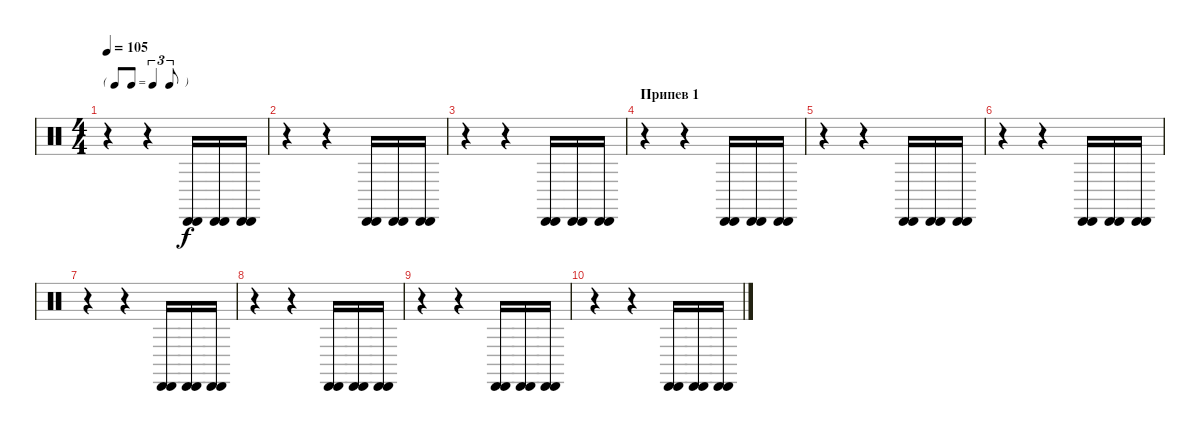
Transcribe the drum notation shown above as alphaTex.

\track "" {instrument percussion}
\staff {score}
\articulation defaults
\ts (4 4)
\tf triplet8th
\tempo 105
\clef neutral
\ks c
r.4{dy f} r.4 ("Cabasa (hit)" "Cabasa (hit)").16 ("Cabasa (hit)" "Cabasa (hit)").16 ("Cabasa (hit)" "Cabasa (hit)").16 |
r.4 r.4 ("Cabasa (hit)" "Cabasa (hit)").16 ("Cabasa (hit)" "Cabasa (hit)").16 ("Cabasa (hit)" "Cabasa (hit)").16 |
r.4 r.4 ("Cabasa (hit)" "Cabasa (hit)").16 ("Cabasa (hit)" "Cabasa (hit)").16 ("Cabasa (hit)" "Cabasa (hit)").16 |
\section ("" "Припев 1")
r.4 r.4 ("Cabasa (hit)" "Cabasa (hit)").16 ("Cabasa (hit)" "Cabasa (hit)").16 ("Cabasa (hit)" "Cabasa (hit)").16 |
r.4 r.4 ("Cabasa (hit)" "Cabasa (hit)").16 ("Cabasa (hit)" "Cabasa (hit)").16 ("Cabasa (hit)" "Cabasa (hit)").16 |
r.4 r.4 ("Cabasa (hit)" "Cabasa (hit)").16 ("Cabasa (hit)" "Cabasa (hit)").16 ("Cabasa (hit)" "Cabasa (hit)").16 |
r.4 r.4 ("Cabasa (hit)" "Cabasa (hit)").16 ("Cabasa (hit)" "Cabasa (hit)").16 ("Cabasa (hit)" "Cabasa (hit)").16 |
r.4 r.4 ("Cabasa (hit)" "Cabasa (hit)").16 ("Cabasa (hit)" "Cabasa (hit)").16 ("Cabasa (hit)" "Cabasa (hit)").16 |
r.4 r.4 ("Cabasa (hit)" "Cabasa (hit)").16 ("Cabasa (hit)" "Cabasa (hit)").16 ("Cabasa (hit)" "Cabasa (hit)").16 |
r.4 r.4 ("Cabasa (hit)" "Cabasa (hit)").16 ("Cabasa (hit)" "Cabasa (hit)").16 ("Cabasa (hit)" "Cabasa (hit)").16
